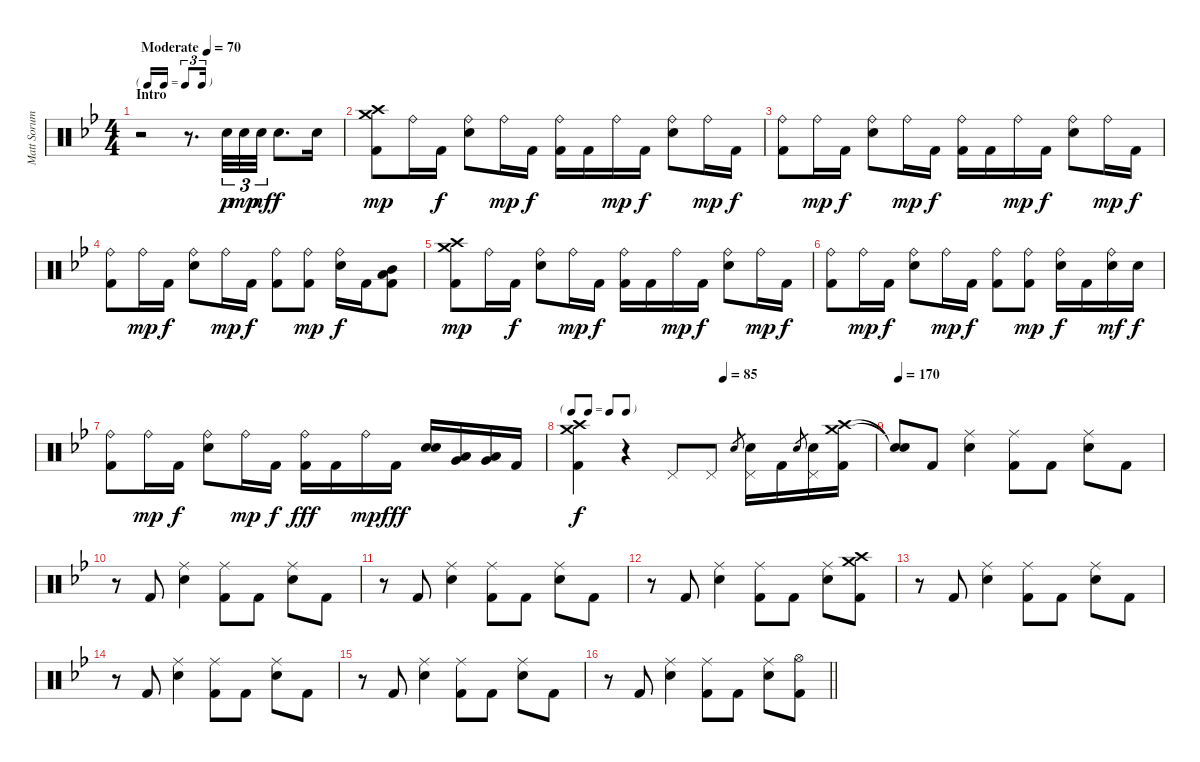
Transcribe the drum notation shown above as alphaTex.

\track ("Matt Sorum - Drums" "Matt Sorum") {instrument percussion}
\staff {score}
\articulation defaults
\ts (4 4)
\tf triplet16th
\section ("" "Intro")
\tempo (70 "Moderate")
\clef neutral
\ks bb
r.2{dy p} r.8{d} "Snare (hit) 2".32{tu (3 2)} "Snare (hit) 2".32{tu (3 2) dy mp} "Snare (hit) 2".32{tu (3 2) dy mf} "Snare (hit) 2".8{d dy f} "Snare (hit) 2".16 |
("Crash medium (hit)" "Crash high (hit)" "Kick (hit) 2").8{dy mp} "Ride (bell)".16 "Kick (hit) 2".16{dy f} ("Ride (bell)" "Snare (hit) 2").8 "Ride (bell)".16{dy mp} "Kick (hit) 2".16{dy f} ("Ride (bell)" "Kick (hit) 2").16 "Kick (hit) 2".16 "Ride (bell)".16{dy mp} "Kick (hit) 2".16{dy f} ("Ride (bell)" "Snare (hit) 2").8 "Ride (bell)".16{dy mp} "Kick (hit) 2".16{dy f} |
("Ride (bell)" "Kick (hit) 2").8 "Ride (bell)".16{dy mp} "Kick (hit) 2".16{dy f} ("Ride (bell)" "Snare (hit) 2").8 "Ride (bell)".16{dy mp} "Kick (hit) 2".16{dy f} ("Ride (bell)" "Kick (hit) 2").16 "Kick (hit) 2".16 "Ride (bell)".16{dy mp} "Kick (hit) 2".16{dy f} ("Ride (bell)" "Snare (hit) 2").8 "Ride (bell)".16{dy mp} "Kick (hit) 2".16{dy f} |
("Ride (bell)" "Kick (hit) 2").8 "Ride (bell)".16{dy mp} "Kick (hit) 2".16{dy f} ("Ride (bell)" "Snare (hit) 2").8 "Ride (bell)".16{dy mp} "Kick (hit) 2".16{dy f} ("Ride (bell)" "Kick (hit) 2").8 ("Ride (bell)" "Kick (hit) 2").8{dy mp} ("Ride (bell)" "Snare (hit) 2").16{dy f} "Kick (hit) 2".16 ("Mid Tom (hit)" "Low Tom (hit)" "Kick (hit) 2").8 |
("Crash medium (hit)" "Crash high (hit)" "Kick (hit) 2").8{dy mp} "Ride (bell)".16 "Kick (hit) 2".16{dy f} ("Ride (bell)" "Snare (hit) 2").8 "Ride (bell)".16{dy mp} "Kick (hit) 2".16{dy f} ("Ride (bell)" "Kick (hit) 2").16 "Kick (hit) 2".16 "Ride (bell)".16{dy mp} "Kick (hit) 2".16{dy f} ("Ride (bell)" "Snare (hit) 2").8 "Ride (bell)".16{dy mp} "Kick (hit) 2".16{dy f} |
("Ride (bell)" "Kick (hit) 2").8 "Ride (bell)".16{dy mp} "Kick (hit) 2".16{dy f} ("Ride (bell)" "Snare (hit) 2").8 "Ride (bell)".16{dy mp} "Kick (hit) 2".16{dy f} ("Ride (bell)" "Kick (hit) 2").8 ("Ride (bell)" "Kick (hit) 2").8{dy mp} ("Ride (bell)" "Snare (hit) 2").16{dy f} "Kick (hit) 2".16 ("Ride (bell)" "Snare (hit) 2").16{dy mf} "Snare (hit) 2".16{dy f} |
("Ride (bell)" "Kick (hit) 2").8 "Ride (bell)".16{dy mp} "Kick (hit) 2".16{dy f} ("Ride (bell)" "Snare (hit) 2").8 "Ride (bell)".16{dy mp} "Kick (hit) 2".16{dy f} ("Ride (bell)" "Kick (hit) 2").16{dy fff} "Kick (hit) 2".16 "Ride (bell)".16{dy mp} "Kick (hit) 2".16{dy fff} ("Electric Snare (hit)" "Snare (hit) 2").16 ("Low Tom (hit)" "Very Low Tom (hit)").16 ("Low Tom (hit)" "Very Low Tom (hit)").16 "Kick (hit) 2".16 |
\tf none
\tempo (85 0.5)
("Crash medium (hit)" "Crash high (hit)" "Kick (hit) 2").4{dy f} r.4 "Pedal Hi-Hat (hit)".8 "Pedal Hi-Hat (hit)".8 "Snare (hit) 2".8{gr} ("Pedal Hi-Hat (hit)" "Snare (hit) 2").16 "Kick (hit) 2".16 "Snare (hit) 2".8{gr} ("Pedal Hi-Hat (hit)" "Snare (hit) 2").16 ("Crash medium (hit)" "Crash high (hit)" "Kick (hit) 2").16 |
\tempo 170
("Snare (hit)"{t} "Snare (hit)"{t}).8 "Kick (hit) 2".8 ("Ride (middle)" "Snare (hit) 2").4 ("Ride (middle)" "Kick (hit) 2").8 "Kick (hit) 2".8 ("Ride (middle)" "Snare (hit) 2").8 "Kick (hit) 2".8 |
r.8 "Kick (hit) 2".8 ("Ride (middle)" "Snare (hit) 2").4 ("Ride (middle)" "Kick (hit) 2").8 "Kick (hit) 2".8 ("Ride (middle)" "Snare (hit) 2").8 "Kick (hit) 2".8 |
r.8 "Kick (hit) 2".8 ("Ride (middle)" "Snare (hit) 2").4 ("Ride (middle)" "Kick (hit) 2").8 "Kick (hit) 2".8 ("Ride (middle)" "Snare (hit) 2").8 "Kick (hit) 2".8 |
r.8 "Kick (hit) 2".8 ("Ride (middle)" "Snare (hit) 2").4 ("Ride (middle)" "Kick (hit) 2").8 "Kick (hit) 2".8 ("Ride (middle)" "Snare (hit) 2").8 ("Crash medium (hit)" "Crash high (hit)" "Kick (hit) 2").8 |
r.8 "Kick (hit) 2".8 ("Ride (middle)" "Snare (hit) 2").4 ("Ride (middle)" "Kick (hit) 2").8 "Kick (hit) 2".8 ("Ride (middle)" "Snare (hit) 2").8 "Kick (hit) 2".8 |
r.8 "Kick (hit) 2".8 ("Ride (middle)" "Snare (hit) 2").4 ("Ride (middle)" "Kick (hit) 2").8 "Kick (hit) 2".8 ("Ride (middle)" "Snare (hit) 2").8 "Kick (hit) 2".8 |
r.8 "Kick (hit) 2".8 ("Ride (middle)" "Snare (hit) 2").4 ("Ride (middle)" "Kick (hit) 2").8 "Kick (hit) 2".8 ("Ride (middle)" "Snare (hit) 2").8 "Kick (hit) 2".8 |
\barLineRight lightlight
r.8 "Kick (hit) 2".8 ("Ride (middle)" "Snare (hit) 2").4 ("Ride (middle)" "Kick (hit) 2").8 "Kick (hit) 2".8 ("Ride (middle)" "Snare (hit) 2").8 ("Hi-Hat (open)" "Kick (hit) 2").8
